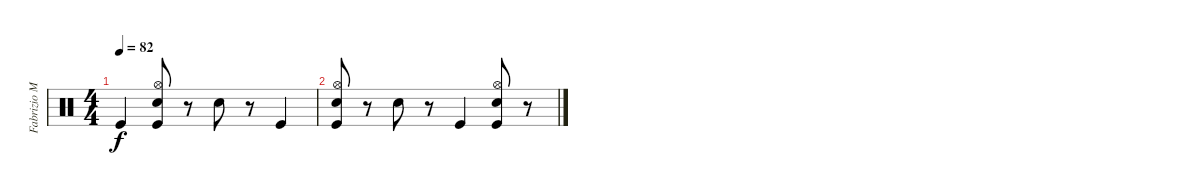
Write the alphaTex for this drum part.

\track ("Fabrizio Moretti" "Fabrizio M") {instrument percussion}
\staff {score}
\articulation defaults
\ts (4 4)
\tempo 82
\clef neutral
\ks c "Kick (hit)".4{dy f}
("Hi-Hat (open)" "Kick (hit)" "Snare (hit) 2").8 r.8 "Snare (hit) 2".8 r.8 "Kick (hit)".4 |
("Hi-Hat (open)" "Kick (hit)" "Snare (hit) 2").8 r.8 "Snare (hit) 2".8 r.8 "Kick (hit)".4 ("Hi-Hat (open)" "Kick (hit)" "Snare (hit) 2").8 r.8
